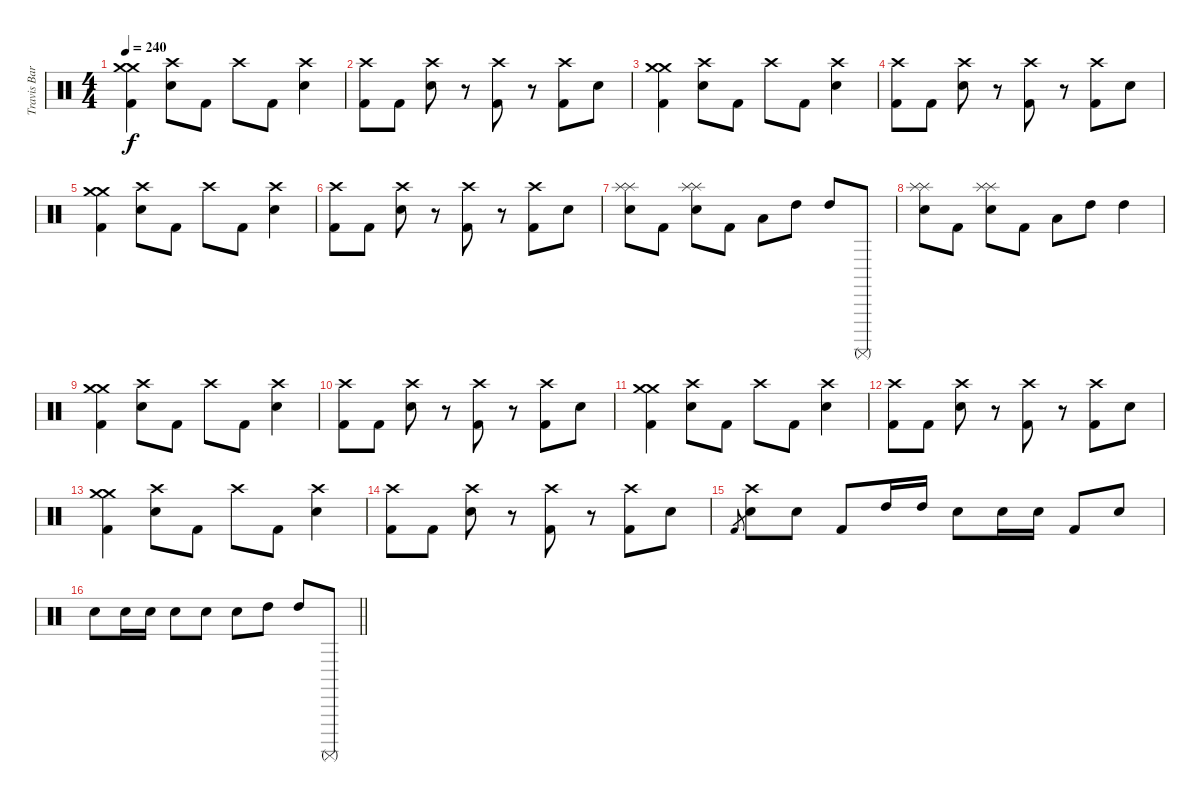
\track ("Travis Barker - Drums" "Travis Bar") {instrument percussion}
\staff {score}
\articulation defaults
\ts (4 4)
\tempo 240
\clef neutral
\ks c
("Crash medium (hit)" "Crash medium (hit)" "Kick (hit) 2").4{dy f} ("Crash high (hit)" "Electric Snare (hit)").8 "Kick (hit) 2".8 "Crash high (hit)".8 "Kick (hit) 2".8 ("Crash high (hit)" "Electric Snare (hit)").4 |
("Crash high (hit)" "Kick (hit) 2").8 "Kick (hit) 2".8 ("Crash high (hit)" "Electric Snare (hit)").8 r.8 ("Crash high (hit)" "Kick (hit) 2").8 r.8 ("Crash high (hit)" "Kick (hit) 2").8 "Electric Snare (hit)".8 |
("Crash medium (hit)" "Crash medium (hit)" "Kick (hit) 2").4 ("Crash high (hit)" "Electric Snare (hit)").8 "Kick (hit) 2".8 "Crash high (hit)".8 "Kick (hit) 2".8 ("Crash high (hit)" "Electric Snare (hit)").4 |
("Crash high (hit)" "Kick (hit) 2").8 "Kick (hit) 2".8 ("Crash high (hit)" "Electric Snare (hit)").8 r.8 ("Crash high (hit)" "Kick (hit) 2").8 r.8 ("Crash high (hit)" "Kick (hit) 2").8 "Electric Snare (hit)".8 |
("Crash medium (hit)" "Crash medium (hit)" "Kick (hit) 2").4 ("Crash high (hit)" "Electric Snare (hit)").8 "Kick (hit) 2".8 "Crash high (hit)".8 "Kick (hit) 2".8 ("Crash high (hit)" "Electric Snare (hit)").4 |
("Crash high (hit)" "Kick (hit) 2").8 "Kick (hit) 2".8 ("Crash high (hit)" "Electric Snare (hit)").8 r.8 ("Crash high (hit)" "Kick (hit) 2").8 r.8 ("Crash high (hit)" "Kick (hit) 2").8 "Electric Snare (hit)".8 |
("Splash (hit)" "Splash (hit)" "Electric Snare (hit)").8 "Kick (hit) 2".8 ("Splash (hit)" "Splash (hit)" "Electric Snare (hit)").8 "Kick (hit) 2".8 "Low Tom (hit)".8 "High Tom (hit)".8 "High Tom (hit)".8 "Surdo (mute)".8 |
("Splash (hit)" "Splash (hit)" "Electric Snare (hit)").8 "Kick (hit) 2".8 ("Splash (hit)" "Splash (hit)" "Electric Snare (hit)").8 "Kick (hit) 2".8 "Low Tom (hit)".8 "High Tom (hit)".8 "High Tom (hit)".4 |
("Crash medium (hit)" "Crash medium (hit)" "Kick (hit) 2").4 ("Crash high (hit)" "Electric Snare (hit)").8 "Kick (hit) 2".8 "Crash high (hit)".8 "Kick (hit) 2".8 ("Crash high (hit)" "Electric Snare (hit)").4 |
("Crash high (hit)" "Kick (hit) 2").8 "Kick (hit) 2".8 ("Crash high (hit)" "Electric Snare (hit)").8 r.8 ("Crash high (hit)" "Kick (hit) 2").8 r.8 ("Crash high (hit)" "Kick (hit) 2").8 "Electric Snare (hit)".8 |
("Crash medium (hit)" "Crash medium (hit)" "Kick (hit) 2").4 ("Crash high (hit)" "Electric Snare (hit)").8 "Kick (hit) 2".8 "Crash high (hit)".8 "Kick (hit) 2".8 ("Crash high (hit)" "Electric Snare (hit)").4 |
("Crash high (hit)" "Kick (hit) 2").8 "Kick (hit) 2".8 ("Crash high (hit)" "Electric Snare (hit)").8 r.8 ("Crash high (hit)" "Kick (hit) 2").8 r.8 ("Crash high (hit)" "Kick (hit) 2").8 "Electric Snare (hit)".8 |
("Crash medium (hit)" "Crash medium (hit)" "Kick (hit) 2").4 ("Crash high (hit)" "Electric Snare (hit)").8 "Kick (hit) 2".8 "Crash high (hit)".8 "Kick (hit) 2".8 ("Crash high (hit)" "Electric Snare (hit)").4 |
("Crash high (hit)" "Kick (hit) 2").8 "Kick (hit) 2".8 ("Crash high (hit)" "Electric Snare (hit)").8 r.8 ("Crash high (hit)" "Kick (hit) 2").8 r.8 ("Crash high (hit)" "Kick (hit) 2").8 "Electric Snare (hit)".8 |
"Kick (hit) 2".8{gr} ("Crash high (hit)" "Electric Snare (hit)").8 "Electric Snare (hit)".8 "Kick (hit) 2".8 "High Tom (hit)".16 "High Tom (hit)".16 "Electric Snare (hit)".8 "Electric Snare (hit)".16 "Electric Snare (hit)".16 "Kick (hit) 2".8 "Electric Snare (hit)".8 |
\barLineRight lightlight "Electric Snare (hit)".8 "Electric Snare (hit)".16 "Electric Snare (hit)".16 "Electric Snare (hit)".8 "Electric Snare (hit)".8 "Electric Snare (hit)".8 "High Tom (hit)".8 "High Tom (hit)".8 "Surdo (mute)".8
